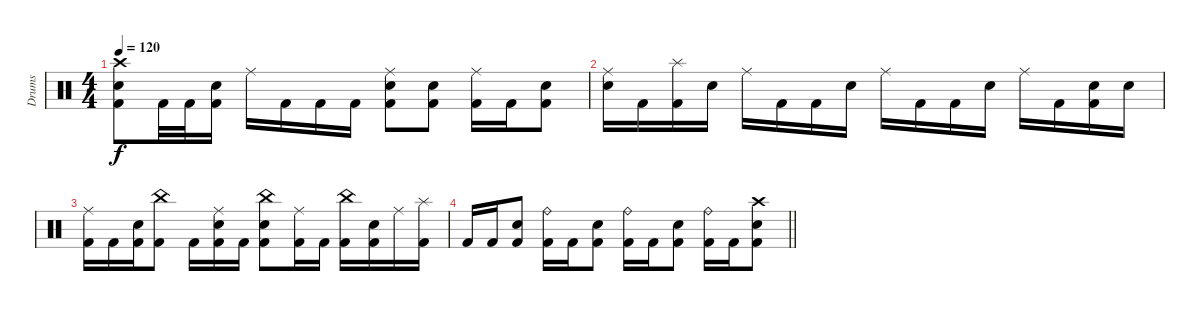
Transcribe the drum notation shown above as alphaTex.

\track ("Drums" "Drums") {instrument percussion}
\staff
\articulation defaults
\ts (4 4)
\tempo 120
\clef neutral
\ks c
("Crash high (hit)" "Electric Snare (hit)" "Kick (hit) 2").8{dy f} "Kick (hit) 2".32 "Kick (hit) 2".32 ("Electric Snare (hit)" "Kick (hit) 2").16 "Ride (middle)".16 "Kick (hit) 2".16 "Kick (hit) 2".16 "Kick (hit) 2".16 ("Ride (middle)" "Electric Snare (hit)" "Kick (hit) 2").8 ("Electric Snare (hit)" "Kick (hit) 2").8 ("Ride (middle)" "Kick (hit) 2").16 "Kick (hit) 2".16 ("Electric Snare (hit)" "Kick (hit) 2").8 |
("Ride (middle)" "Electric Snare (hit)").16 "Kick (hit) 2".16 ("Splash (hit)" "Kick (hit) 2").16 "Electric Snare (hit)".16 "Ride (middle)".16 "Kick (hit) 2".16 "Kick (hit) 2".16 "Electric Snare (hit)".16 "Ride (middle)".16 "Kick (hit) 2".16 "Kick (hit) 2".16 "Electric Snare (hit)".16 "Ride (middle)".16 "Kick (hit) 2".16 ("Electric Snare (hit)" "Kick (hit) 2").16 "Electric Snare (hit)".16 |
("Ride (middle)" "Kick (hit) 2").16 "Kick (hit) 2".16 ("Electric Snare (hit)" "Kick (hit) 2").16 ("China (hit)" "Kick (hit) 2").8 "Kick (hit) 2".16 ("Ride (middle)" "Electric Snare (hit)" "Kick (hit) 2").16 "Kick (hit) 2".16 ("China (hit)" "Electric Snare (hit)" "Kick (hit) 2").8 ("Ride (middle)" "Kick (hit) 2").16 "Kick (hit) 2".16 ("China (hit)" "Kick (hit) 2").16 ("Electric Snare (hit)" "Kick (hit) 2").16 "Ride (middle)".16 ("Splash (hit)" "Kick (hit) 2").16 |
\barLineRight lightlight "Kick (hit) 2".16 "Kick (hit) 2".16
("Electric Snare (hit)" "Kick (hit) 2").8 ("Ride (bell)" "Kick (hit) 2").16 "Kick (hit) 2".16 ("Electric Snare (hit)" "Kick (hit) 2").8 ("Ride (bell)" "Kick (hit) 2").16 "Kick (hit) 2".16 ("Electric Snare (hit)" "Kick (hit) 2").8 ("Ride (bell)" "Kick (hit) 2").16 "Kick (hit) 2".16 ("Crash high (hit)" "Electric Snare (hit)" "Kick (hit) 2").8
